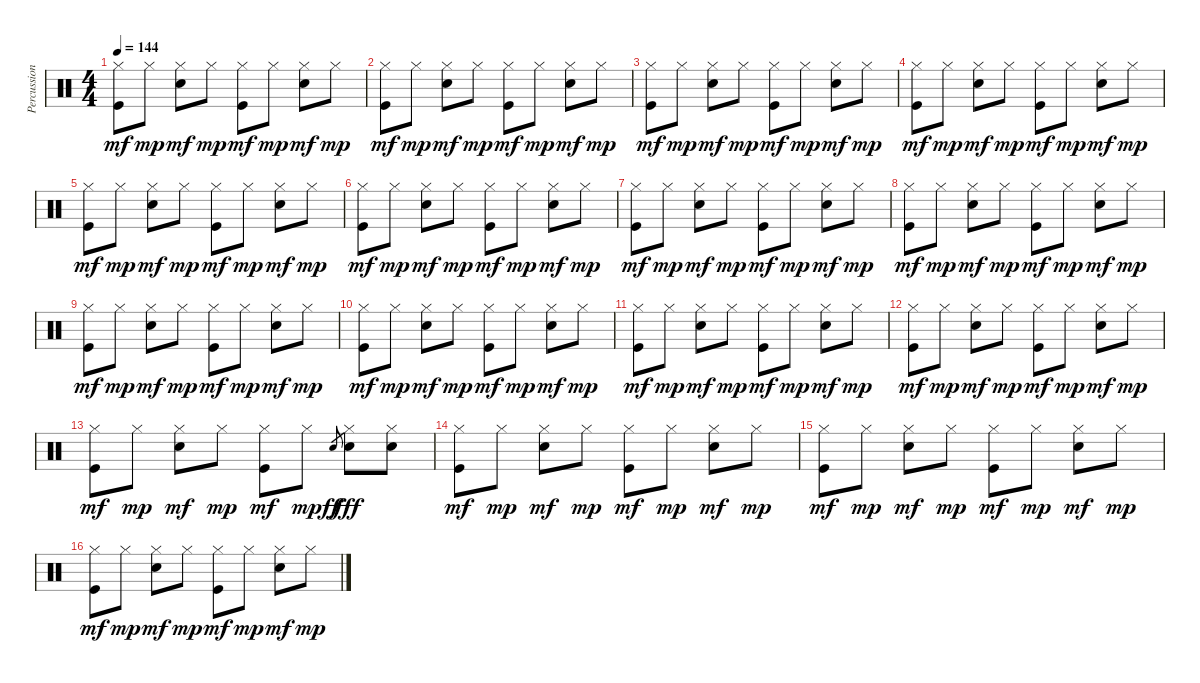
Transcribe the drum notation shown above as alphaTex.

\track ("Percussions" "Percussion") {instrument percussion}
\staff {score}
\articulation defaults
\ts (4 4)
\tempo 144
\clef neutral
\ks c
("Hi-Hat (closed)" "Kick (hit)").8{dy mf} "Hi-Hat (closed)".8{dy mp} ("Hi-Hat (closed)" "Snare (hit) 2").8{dy mf} "Hi-Hat (closed)".8{dy mp} ("Hi-Hat (closed)" "Kick (hit)").8{dy mf} "Hi-Hat (closed)".8{dy mp} ("Hi-Hat (closed)" "Snare (hit) 2").8{dy mf} "Hi-Hat (closed)".8{dy mp} |
("Hi-Hat (closed)" "Kick (hit)").8{dy mf} "Hi-Hat (closed)".8{dy mp} ("Hi-Hat (closed)" "Snare (hit) 2").8{dy mf} "Hi-Hat (closed)".8{dy mp} ("Hi-Hat (closed)" "Kick (hit)").8{dy mf} "Hi-Hat (closed)".8{dy mp} ("Hi-Hat (closed)" "Snare (hit) 2").8{dy mf} "Hi-Hat (closed)".8{dy mp} |
("Hi-Hat (closed)" "Kick (hit)").8{dy mf} "Hi-Hat (closed)".8{dy mp} ("Hi-Hat (closed)" "Snare (hit) 2").8{dy mf} "Hi-Hat (closed)".8{dy mp} ("Hi-Hat (closed)" "Kick (hit)").8{dy mf} "Hi-Hat (closed)".8{dy mp} ("Hi-Hat (closed)" "Snare (hit) 2").8{dy mf} "Hi-Hat (closed)".8{dy mp} |
("Hi-Hat (closed)" "Kick (hit)").8{dy mf} "Hi-Hat (closed)".8{dy mp} ("Hi-Hat (closed)" "Snare (hit) 2").8{dy mf} "Hi-Hat (closed)".8{dy mp} ("Hi-Hat (closed)" "Kick (hit)").8{dy mf} "Hi-Hat (closed)".8{dy mp} ("Hi-Hat (closed)" "Snare (hit) 2").8{dy mf} "Hi-Hat (closed)".8{dy mp} |
("Hi-Hat (closed)" "Kick (hit)").8{dy mf} "Hi-Hat (closed)".8{dy mp} ("Hi-Hat (closed)" "Snare (hit) 2").8{dy mf} "Hi-Hat (closed)".8{dy mp} ("Hi-Hat (closed)" "Kick (hit)").8{dy mf} "Hi-Hat (closed)".8{dy mp} ("Hi-Hat (closed)" "Snare (hit) 2").8{dy mf} "Hi-Hat (closed)".8{dy mp} |
("Hi-Hat (closed)" "Kick (hit)").8{dy mf} "Hi-Hat (closed)".8{dy mp} ("Hi-Hat (closed)" "Snare (hit) 2").8{dy mf} "Hi-Hat (closed)".8{dy mp} ("Hi-Hat (closed)" "Kick (hit)").8{dy mf} "Hi-Hat (closed)".8{dy mp} ("Hi-Hat (closed)" "Snare (hit) 2").8{dy mf} "Hi-Hat (closed)".8{dy mp} |
("Hi-Hat (closed)" "Kick (hit)").8{dy mf} "Hi-Hat (closed)".8{dy mp} ("Hi-Hat (closed)" "Snare (hit) 2").8{dy mf} "Hi-Hat (closed)".8{dy mp} ("Hi-Hat (closed)" "Kick (hit)").8{dy mf} "Hi-Hat (closed)".8{dy mp} ("Hi-Hat (closed)" "Snare (hit) 2").8{dy mf} "Hi-Hat (closed)".8{dy mp} |
("Hi-Hat (closed)" "Kick (hit)").8{dy mf} "Hi-Hat (closed)".8{dy mp} ("Hi-Hat (closed)" "Snare (hit) 2").8{dy mf} "Hi-Hat (closed)".8{dy mp} ("Hi-Hat (closed)" "Kick (hit)").8{dy mf} "Hi-Hat (closed)".8{dy mp} ("Hi-Hat (closed)" "Snare (hit) 2").8{dy mf} "Hi-Hat (closed)".8{dy mp} |
("Hi-Hat (closed)" "Kick (hit)").8{dy mf} "Hi-Hat (closed)".8{dy mp} ("Hi-Hat (closed)" "Snare (hit) 2").8{dy mf} "Hi-Hat (closed)".8{dy mp} ("Hi-Hat (closed)" "Kick (hit)").8{dy mf} "Hi-Hat (closed)".8{dy mp} ("Hi-Hat (closed)" "Snare (hit) 2").8{dy mf} "Hi-Hat (closed)".8{dy mp} |
("Hi-Hat (closed)" "Kick (hit)").8{dy mf} "Hi-Hat (closed)".8{dy mp} ("Hi-Hat (closed)" "Snare (hit) 2").8{dy mf} "Hi-Hat (closed)".8{dy mp} ("Hi-Hat (closed)" "Kick (hit)").8{dy mf} "Hi-Hat (closed)".8{dy mp} ("Hi-Hat (closed)" "Snare (hit) 2").8{dy mf} "Hi-Hat (closed)".8{dy mp} |
("Hi-Hat (closed)" "Kick (hit)").8{dy mf} "Hi-Hat (closed)".8{dy mp} ("Hi-Hat (closed)" "Snare (hit) 2").8{dy mf} "Hi-Hat (closed)".8{dy mp} ("Hi-Hat (closed)" "Kick (hit)").8{dy mf} "Hi-Hat (closed)".8{dy mp} ("Hi-Hat (closed)" "Snare (hit) 2").8{dy mf} "Hi-Hat (closed)".8{dy mp} |
("Hi-Hat (closed)" "Kick (hit)").8{dy mf} "Hi-Hat (closed)".8{dy mp} ("Hi-Hat (closed)" "Snare (hit) 2").8{dy mf} "Hi-Hat (closed)".8{dy mp} ("Hi-Hat (closed)" "Kick (hit)").8{dy mf} "Hi-Hat (closed)".8{dy mp} ("Hi-Hat (closed)" "Snare (hit) 2").8{dy mf} "Hi-Hat (closed)".8{dy mp} |
("Hi-Hat (closed)" "Kick (hit)").8{dy mf} "Hi-Hat (closed)".8{dy mp} ("Hi-Hat (closed)" "Snare (hit) 2").8{dy mf} "Hi-Hat (closed)".8{dy mp} ("Hi-Hat (closed)" "Kick (hit)").8{dy mf} "Hi-Hat (closed)".8{dy mp} "Snare (hit) 2".8{gr dy ff} ("Hi-Hat (closed)" "Snare (hit) 2").8{dy fff} ("Hi-Hat (closed)" "Snare (hit) 2").8 |
("Hi-Hat (closed)" "Kick (hit)").8{dy mf} "Hi-Hat (closed)".8{dy mp} ("Hi-Hat (closed)" "Snare (hit) 2").8{dy mf} "Hi-Hat (closed)".8{dy mp} ("Hi-Hat (closed)" "Kick (hit)").8{dy mf} "Hi-Hat (closed)".8{dy mp} ("Hi-Hat (closed)" "Snare (hit) 2").8{dy mf} "Hi-Hat (closed)".8{dy mp} |
("Hi-Hat (closed)" "Kick (hit)").8{dy mf} "Hi-Hat (closed)".8{dy mp} ("Hi-Hat (closed)" "Snare (hit) 2").8{dy mf} "Hi-Hat (closed)".8{dy mp} ("Hi-Hat (closed)" "Kick (hit)").8{dy mf} "Hi-Hat (closed)".8{dy mp} ("Hi-Hat (closed)" "Snare (hit) 2").8{dy mf} "Hi-Hat (closed)".8{dy mp} |
("Hi-Hat (closed)" "Kick (hit)").8{dy mf} "Hi-Hat (closed)".8{dy mp} ("Hi-Hat (closed)" "Snare (hit) 2").8{dy mf} "Hi-Hat (closed)".8{dy mp} ("Hi-Hat (closed)" "Kick (hit)").8{dy mf} "Hi-Hat (closed)".8{dy mp} ("Hi-Hat (closed)" "Snare (hit) 2").8{dy mf} "Hi-Hat (closed)".8{dy mp}
